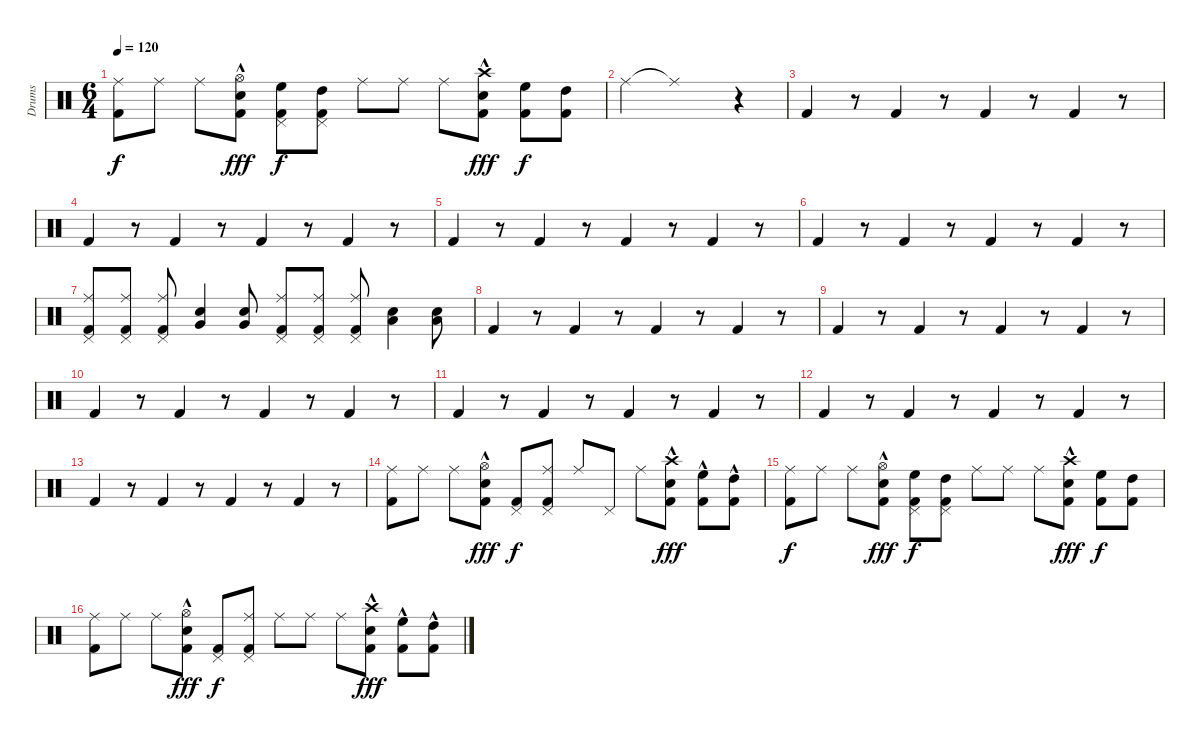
\track ("Drums" "Drums") {instrument percussion}
\staff {score}
\articulation defaults
\ts (6 4)
\tempo 120
\clef neutral
\ks c
("Ride (middle)" "Kick (hit) 2").8{dy f} "Ride (middle)".8 "Ride (middle)".8 ("Hi-Hat (open)" "Snare (hit) 2"{hac} "Kick (hit) 2").8{dy fff} ("Pedal Hi-Hat (hit)" "High Floor Tom (hit)" "Kick (hit) 2").8{dy f} ("Pedal Hi-Hat (hit)" "High Tom (hit)" "Kick (hit) 2").8 "Ride (middle)".8 "Ride (middle)".8 "Ride (middle)".8 ("Crash high (hit)" "Snare (hit) 2"{hac} "Kick (hit) 2").8{dy fff} ("High Floor Tom (hit)" "Kick (hit) 2").8{dy f} ("High Tom (hit)" "Kick (hit) 2").8 |
"Ride (middle)".4 "Ride (middle)"{t}.1 r.4 |
"Kick (hit) 2".4 r.8 "Kick (hit) 2".4 r.8 "Kick (hit) 2".4 r.8 "Kick (hit) 2".4 r.8 |
"Kick (hit) 2".4 r.8 "Kick (hit) 2".4 r.8 "Kick (hit) 2".4 r.8 "Kick (hit) 2".4 r.8 |
"Kick (hit) 2".4 r.8 "Kick (hit) 2".4 r.8 "Kick (hit) 2".4 r.8 "Kick (hit) 2".4 r.8 |
"Kick (hit) 2".4 r.8 "Kick (hit) 2".4 r.8 "Kick (hit) 2".4 r.8 "Kick (hit) 2".4 r.8 |
("Ride (middle)" "Pedal Hi-Hat (hit)" "Kick (hit) 2").8 ("Ride (middle)" "Pedal Hi-Hat (hit)" "Kick (hit) 2").8 ("Ride (middle)" "Pedal Hi-Hat (hit)" "Kick (hit) 2").8 ("Very Low Tom (hit)" "Snare (hit) 2").4 ("Very Low Tom (hit)" "Snare (hit) 2").8 ("Ride (middle)" "Pedal Hi-Hat (hit)" "Kick (hit) 2").8 ("Ride (middle)" "Pedal Hi-Hat (hit)" "Kick (hit) 2").8 ("Ride (middle)" "Pedal Hi-Hat (hit)" "Kick (hit) 2").8 ("Low Tom (hit)" "Snare (hit) 2").4 ("Low Tom (hit)" "Snare (hit) 2").8 |
"Kick (hit) 2".4 r.8 "Kick (hit) 2".4 r.8 "Kick (hit) 2".4 r.8 "Kick (hit) 2".4 r.8 |
"Kick (hit) 2".4 r.8 "Kick (hit) 2".4 r.8 "Kick (hit) 2".4 r.8 "Kick (hit) 2".4 r.8 |
"Kick (hit) 2".4 r.8 "Kick (hit) 2".4 r.8 "Kick (hit) 2".4 r.8 "Kick (hit) 2".4 r.8 |
"Kick (hit) 2".4 r.8 "Kick (hit) 2".4 r.8 "Kick (hit) 2".4 r.8 "Kick (hit) 2".4 r.8 |
"Kick (hit) 2".4 r.8 "Kick (hit) 2".4 r.8 "Kick (hit) 2".4 r.8 "Kick (hit) 2".4 r.8 |
"Kick (hit) 2".4 r.8 "Kick (hit) 2".4 r.8 "Kick (hit) 2".4 r.8 "Kick (hit) 2".4 r.8 |
("Ride (middle)" "Kick (hit) 2").8 "Ride (middle)".8 "Ride (middle)".8 ("Hi-Hat (open)" "Snare (hit) 2"{hac} "Kick (hit) 2").8{dy fff} ("Pedal Hi-Hat (hit)" "Kick (hit) 2").8{dy f} ("Pedal Hi-Hat (hit)" "Ride (middle)" "Kick (hit) 2").8 "Ride (middle)".8 "Pedal Hi-Hat (hit)".8 "Ride (middle)".8 ("Crash high (hit)" "Snare (hit) 2"{hac} "Kick (hit) 2").8{dy fff} ("High Floor Tom (hit)"{hac} "Kick (hit) 2").8 ("High Tom (hit)"{hac} "Kick (hit) 2").8 |
("Ride (middle)" "Kick (hit) 2").8{dy f} "Ride (middle)".8 "Ride (middle)".8 ("Hi-Hat (open)" "Snare (hit) 2"{hac} "Kick (hit) 2").8{dy fff} ("Pedal Hi-Hat (hit)" "High Floor Tom (hit)" "Kick (hit) 2").8{dy f} ("Pedal Hi-Hat (hit)" "High Tom (hit)" "Kick (hit) 2").8 "Ride (middle)".8 "Ride (middle)".8 "Ride (middle)".8 ("Crash high (hit)" "Snare (hit) 2"{hac} "Kick (hit) 2").8{dy fff} ("High Floor Tom (hit)" "Kick (hit) 2").8{dy f} ("High Tom (hit)" "Kick (hit) 2").8 |
("Ride (middle)" "Kick (hit) 2").8 "Ride (middle)".8 "Ride (middle)".8 ("Hi-Hat (open)" "Snare (hit) 2"{hac} "Kick (hit) 2").8{dy fff} ("Pedal Hi-Hat (hit)" "Kick (hit) 2").8{dy f} ("Pedal Hi-Hat (hit)" "Ride (middle)" "Kick (hit) 2").8 "Ride (middle)".8 "Ride (middle)".8 "Ride (middle)".8 ("Crash high (hit)" "Snare (hit) 2"{hac} "Kick (hit) 2").8{dy fff} ("High Floor Tom (hit)"{hac} "Kick (hit) 2").8 ("High Tom (hit)"{hac} "Kick (hit) 2").8
